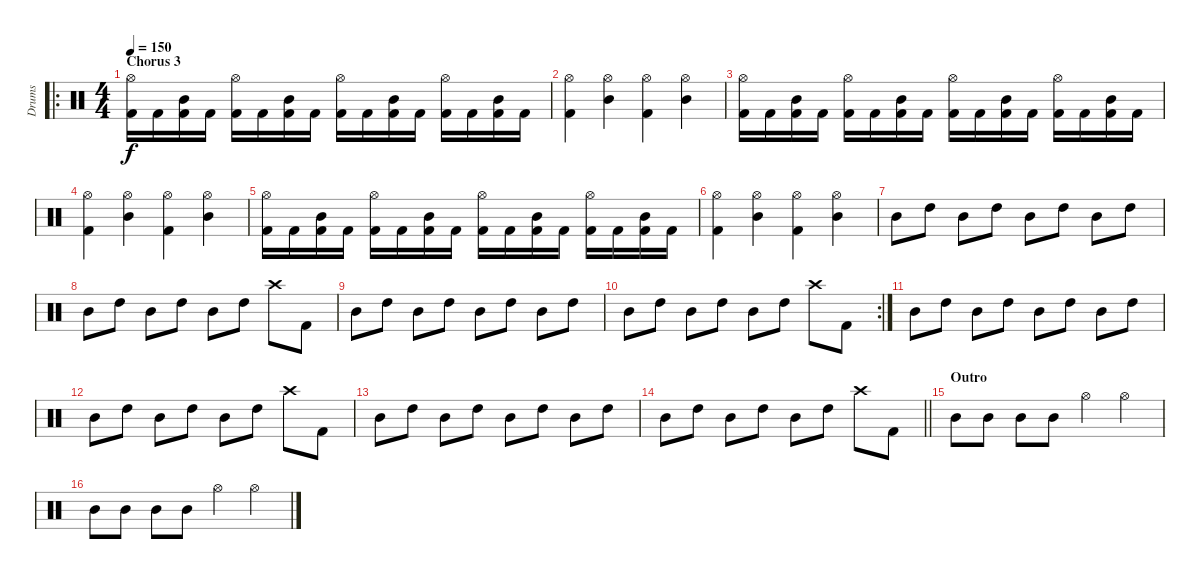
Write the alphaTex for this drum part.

\track ("Drums" "Drums") {instrument percussion}
\staff {score}
\articulation defaults
\ro
\ts (4 4)
\section ("" "Chorus 3")
\tempo 150
\clef neutral
\ks c
("Kick (hit) 2" "Hi-Hat (open)").16{dy f} "Kick (hit) 2".16 ("Kick (hit) 2" "Mid Tom (hit)").16 "Kick (hit) 2".16 ("Kick (hit) 2" "Hi-Hat (open)").16 "Kick (hit) 2".16 ("Kick (hit) 2" "Mid Tom (hit)").16 "Kick (hit) 2".16 ("Kick (hit) 2" "Hi-Hat (open)").16 "Kick (hit) 2".16 ("Kick (hit) 2" "Mid Tom (hit)").16 "Kick (hit) 2".16 ("Kick (hit) 2" "Hi-Hat (open)").16 "Kick (hit) 2".16 ("Kick (hit) 2" "Mid Tom (hit)").16 "Kick (hit) 2".16 |
("Kick (hit) 2" "Hi-Hat (open)").4 ("Mid Tom (hit)" "Hi-Hat (open)").4 ("Kick (hit) 2" "Hi-Hat (open)").4 ("Mid Tom (hit)" "Hi-Hat (open)").4 |
("Kick (hit) 2" "Hi-Hat (open)").16 "Kick (hit) 2".16 ("Kick (hit) 2" "Mid Tom (hit)").16 "Kick (hit) 2".16 ("Kick (hit) 2" "Hi-Hat (open)").16 "Kick (hit) 2".16 ("Kick (hit) 2" "Mid Tom (hit)").16 "Kick (hit) 2".16 ("Kick (hit) 2" "Hi-Hat (open)").16 "Kick (hit) 2".16 ("Kick (hit) 2" "Mid Tom (hit)").16 "Kick (hit) 2".16 ("Kick (hit) 2" "Hi-Hat (open)").16 "Kick (hit) 2".16 ("Kick (hit) 2" "Mid Tom (hit)").16 "Kick (hit) 2".16 |
("Kick (hit) 2" "Hi-Hat (open)").4 ("Mid Tom (hit)" "Hi-Hat (open)").4 ("Kick (hit) 2" "Hi-Hat (open)").4 ("Mid Tom (hit)" "Hi-Hat (open)").4 |
("Kick (hit) 2" "Hi-Hat (open)").16 "Kick (hit) 2".16 ("Kick (hit) 2" "Mid Tom (hit)").16 "Kick (hit) 2".16 ("Kick (hit) 2" "Hi-Hat (open)").16 "Kick (hit) 2".16 ("Kick (hit) 2" "Mid Tom (hit)").16 "Kick (hit) 2".16 ("Kick (hit) 2" "Hi-Hat (open)").16 "Kick (hit) 2".16 ("Kick (hit) 2" "Mid Tom (hit)").16 "Kick (hit) 2".16 ("Kick (hit) 2" "Hi-Hat (open)").16 "Kick (hit) 2".16 ("Kick (hit) 2" "Mid Tom (hit)").16 "Kick (hit) 2".16 |
("Kick (hit) 2" "Hi-Hat (open)").4 ("Mid Tom (hit)" "Hi-Hat (open)").4 ("Kick (hit) 2" "Hi-Hat (open)").4 ("Mid Tom (hit)" "Hi-Hat (open)").4 |
"Mid Tom (hit)".8 "High Tom (hit)".8 "Mid Tom (hit)".8 "High Tom (hit)".8 "Mid Tom (hit)".8 "High Tom (hit)".8 "Mid Tom (hit)".8 "High Tom (hit)".8 |
"Mid Tom (hit)".8 "High Tom (hit)".8 "Mid Tom (hit)".8 "High Tom (hit)".8 "Mid Tom (hit)".8 "High Tom (hit)".8 "Crash high (hit)".8 "Kick (hit) 2".8 |
"Mid Tom (hit)".8 "High Tom (hit)".8 "Mid Tom (hit)".8 "High Tom (hit)".8 "Mid Tom (hit)".8 "High Tom (hit)".8 "Mid Tom (hit)".8 "High Tom (hit)".8 |
\rc 2 "Mid Tom (hit)".8 "High Tom (hit)".8 "Mid Tom (hit)".8 "High Tom (hit)".8 "Mid Tom (hit)".8 "High Tom (hit)".8 "Crash high (hit)".8 "Kick (hit) 2".8
|
"Mid Tom (hit)".8 "High Tom (hit)".8 "Mid Tom (hit)".8 "High Tom (hit)".8 "Mid Tom (hit)".8 "High Tom (hit)".8 "Mid Tom (hit)".8 "High Tom (hit)".8 |
"Mid Tom (hit)".8 "High Tom (hit)".8 "Mid Tom (hit)".8 "High Tom (hit)".8 "Mid Tom (hit)".8 "High Tom (hit)".8 "Crash high (hit)".8 "Kick (hit) 2".8 |
"Mid Tom (hit)".8 "High Tom (hit)".8 "Mid Tom (hit)".8 "High Tom (hit)".8 "Mid Tom (hit)".8 "High Tom (hit)".8 "Mid Tom (hit)".8 "High Tom (hit)".8 |
\barLineRight lightlight "Mid Tom (hit)".8 "High Tom (hit)".8 "Mid Tom (hit)".8 "High Tom (hit)".8 "Mid Tom (hit)".8 "High Tom (hit)".8 "Crash high (hit)".8 "Kick (hit) 2".8
|
\section ("" "Outro")
"Mid Tom (hit)".8 "Mid Tom (hit)".8 "Mid Tom (hit)".8 "Mid Tom (hit)".8 "Hi-Hat (open)".4 "Hi-Hat (open)".4 |
"Mid Tom (hit)".8 "Mid Tom (hit)".8 "Mid Tom (hit)".8 "Mid Tom (hit)".8 "Hi-Hat (open)".4 "Hi-Hat (open)".4
